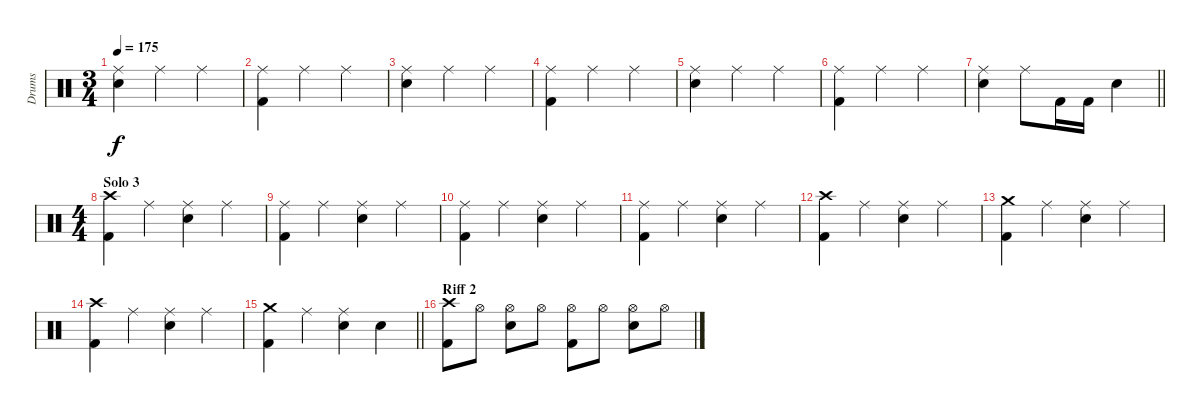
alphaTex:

\track ("Drums" "Drums") {instrument percussion}
\staff {score}
\articulation defaults
\ts (3 4)
\tempo 175
\clef neutral
\ks c
("Ride (middle)" "Electric Snare (hit)").4{dy f} "Ride (middle)".4 "Ride (middle)".4 |
("Ride (middle)" "Kick (hit) 2").4 "Ride (middle)".4 "Ride (middle)".4 |
("Ride (middle)" "Electric Snare (hit)").4 "Ride (middle)".4 "Ride (middle)".4 |
("Ride (middle)" "Kick (hit) 2").4 "Ride (middle)".4 "Ride (middle)".4 |
("Ride (middle)" "Electric Snare (hit)").4 "Ride (middle)".4 "Ride (middle)".4 |
("Ride (middle)" "Kick (hit) 2").4 "Ride (middle)".4 "Ride (middle)".4 |
\barLineRight lightlight
("Ride (middle)" "Electric Snare (hit)").4 "Ride (middle)".8 "Kick (hit) 2".16 "Kick (hit) 2".16 "Electric Snare (hit)".4 |
\ts (4 4)
\section ("" "Solo 3")
("Crash high (hit)" "Kick (hit) 2").4 "Ride (middle)".4 ("Ride (middle)" "Electric Snare (hit)").4 "Ride (middle)".4 |
("Ride (middle)" "Kick (hit) 2").4 "Ride (middle)".4 ("Ride (middle)" "Electric Snare (hit)").4 "Ride (middle)".4 |
("Ride (middle)" "Kick (hit) 2").4 "Ride (middle)".4 ("Ride (middle)" "Electric Snare (hit)").4 "Ride (middle)".4 |
("Ride (middle)" "Kick (hit) 2").4 "Ride (middle)".4 ("Ride (middle)" "Electric Snare (hit)").4 "Ride (middle)".4 |
("Crash high (hit)" "Kick (hit) 2").4 "Ride (middle)".4 ("Ride (middle)" "Electric Snare (hit)").4 "Ride (middle)".4 |
("Crash medium (hit)" "Kick (hit) 2").4 "Ride (middle)".4 ("Ride (middle)" "Electric Snare (hit)").4 "Ride (middle)".4 |
("Crash high (hit)" "Kick (hit) 2").4 "Ride (middle)".4 ("Ride (middle)" "Electric Snare (hit)").4 "Ride (middle)".4 |
\barLineRight lightlight
("Crash medium (hit)" "Kick (hit) 2").4 "Ride (middle)".4 ("Ride (middle)" "Electric Snare (hit)").4 "Electric Snare (hit)".4 |
\section ("" "Riff 2")
("Crash high (hit)" "Kick (hit) 2").8 "Hi-Hat (open)".8 ("Hi-Hat (open)" "Electric Snare (hit)").8 "Hi-Hat (open)".8 ("Hi-Hat (open)" "Kick (hit) 2").8 "Hi-Hat (open)".8 ("Hi-Hat (open)" "Electric Snare (hit)").8 "Hi-Hat (open)".8
